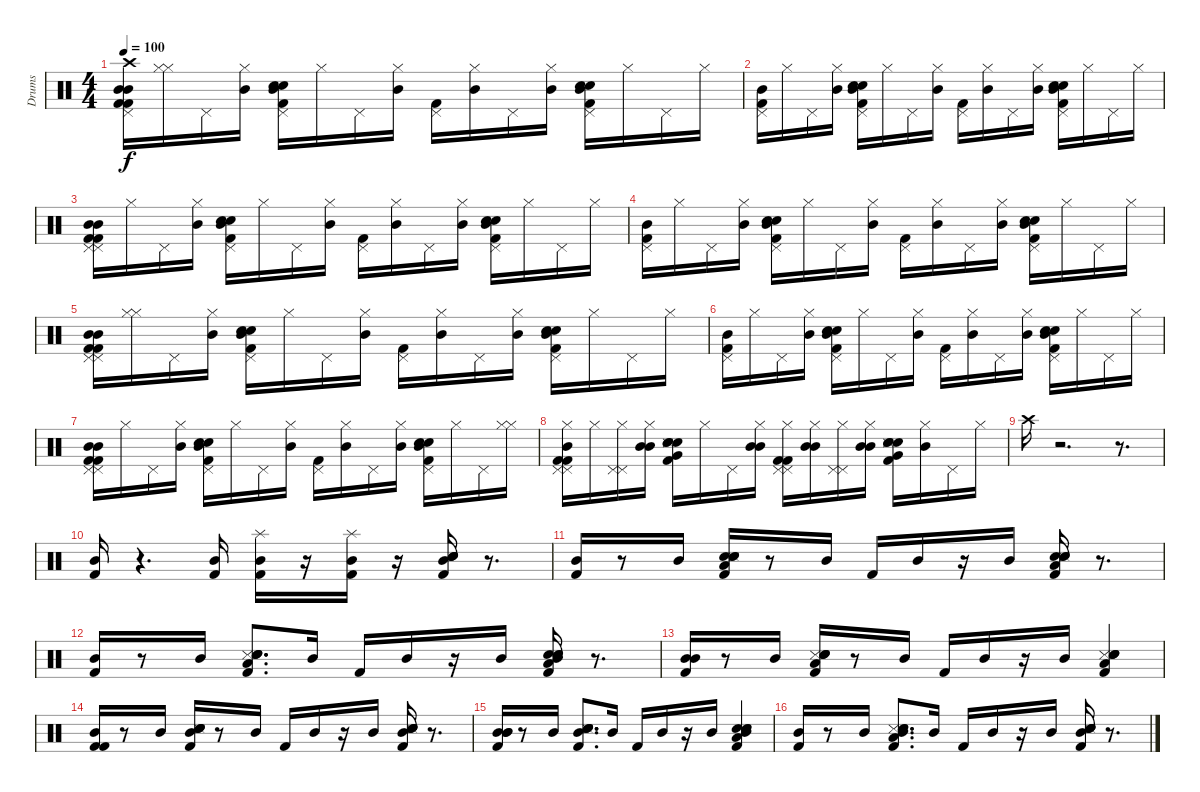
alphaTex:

\track ("Drums" "Drums") {instrument percussion}
\staff {score}
\articulation defaults
\ts (4 4)
\tempo 100
\clef neutral
\ks c
("Kick (hit) 2" "Mid Tom (hit)" "Pedal Hi-Hat (hit)" "Kick (hit) 2" "Mid Tom (hit)" "Crash high (hit)").16{dy f} ("Hi-Hat (closed)" "Hi-Hat (closed)").16 "Pedal Hi-Hat (hit)".16 ("Hi-Hat (closed)" "Mid Tom (hit)").16 ("Pedal Hi-Hat (hit)" "Electric Snare (hit)" "Snare (hit) 2" "Kick (hit) 2" "Mid Tom (hit)").16 "Hi-Hat (closed)".16 "Pedal Hi-Hat (hit)".16 ("Hi-Hat (closed)" "Mid Tom (hit)").16 ("Pedal Hi-Hat (hit)" "Kick (hit) 2").16 ("Hi-Hat (closed)" "Mid Tom (hit)").16 "Pedal Hi-Hat (hit)".16 ("Hi-Hat (closed)" "Mid Tom (hit)").16 ("Pedal Hi-Hat (hit)" "Snare (hit) 2" "Electric Snare (hit)" "Kick (hit) 2" "Mid Tom (hit)").16 "Hi-Hat (closed)".16 "Pedal Hi-Hat (hit)".16 "Hi-Hat (closed)".16 |
("Pedal Hi-Hat (hit)" "Kick (hit) 2" "Mid Tom (hit)").16 "Hi-Hat (closed)".16 "Pedal Hi-Hat (hit)".16 ("Hi-Hat (closed)" "Mid Tom (hit)").16 ("Pedal Hi-Hat (hit)" "Snare (hit) 2" "Electric Snare (hit)" "Kick (hit) 2" "Mid Tom (hit)").16 "Hi-Hat (closed)".16 "Pedal Hi-Hat (hit)".16 ("Hi-Hat (closed)" "Mid Tom (hit)").16 ("Pedal Hi-Hat (hit)" "Kick (hit) 2").16 ("Hi-Hat (closed)" "Mid Tom (hit)").16 "Pedal Hi-Hat (hit)".16 ("Hi-Hat (closed)" "Mid Tom (hit)").16 ("Pedal Hi-Hat (hit)" "Snare (hit) 2" "Electric Snare (hit)" "Kick (hit) 2" "Mid Tom (hit)").16 "Hi-Hat (closed)".16 "Pedal Hi-Hat (hit)".16 "Hi-Hat (closed)".16 |
("Pedal Hi-Hat (hit)" "Kick (hit) 2" "Mid Tom (hit)" "Pedal Hi-Hat (hit)" "Kick (hit) 2" "Mid Tom (hit)").16 "Hi-Hat (closed)".16 "Pedal Hi-Hat (hit)".16 ("Hi-Hat (closed)" "Mid Tom (hit)").16 ("Pedal Hi-Hat (hit)" "Electric Snare (hit)" "Snare (hit) 2" "Kick (hit) 2" "Mid Tom (hit)").16 "Hi-Hat (closed)".16 "Pedal Hi-Hat (hit)".16 ("Hi-Hat (closed)" "Mid Tom (hit)").16 ("Pedal Hi-Hat (hit)" "Kick (hit) 2").16 ("Hi-Hat (closed)" "Mid Tom (hit)").16 "Pedal Hi-Hat (hit)".16 ("Hi-Hat (closed)" "Mid Tom (hit)").16 ("Pedal Hi-Hat (hit)" "Snare (hit) 2" "Electric Snare (hit)" "Kick (hit) 2" "Mid Tom (hit)").16 "Hi-Hat (closed)".16 "Pedal Hi-Hat (hit)".16 "Hi-Hat (closed)".16 |
("Pedal Hi-Hat (hit)" "Kick (hit) 2" "Mid Tom (hit)").16 "Hi-Hat (closed)".16 "Pedal Hi-Hat (hit)".16 ("Hi-Hat (closed)" "Mid Tom (hit)").16 ("Pedal Hi-Hat (hit)" "Snare (hit) 2" "Electric Snare (hit)" "Kick (hit) 2" "Mid Tom (hit)").16 "Hi-Hat (closed)".16 "Pedal Hi-Hat (hit)".16 ("Hi-Hat (closed)" "Mid Tom (hit)").16 ("Pedal Hi-Hat (hit)" "Kick (hit) 2").16 ("Hi-Hat (closed)" "Mid Tom (hit)").16 "Pedal Hi-Hat (hit)".16 ("Hi-Hat (closed)" "Mid Tom (hit)").16 ("Pedal Hi-Hat (hit)" "Snare (hit) 2" "Electric Snare (hit)" "Kick (hit) 2" "Mid Tom (hit)").16 "Hi-Hat (closed)".16 "Pedal Hi-Hat (hit)".16 "Hi-Hat (closed)".16 |
("Pedal Hi-Hat (hit)" "Kick (hit) 2" "Mid Tom (hit)" "Pedal Hi-Hat (hit)" "Kick (hit) 2" "Mid Tom (hit)").16 ("Hi-Hat (closed)" "Hi-Hat (closed)").16 "Pedal Hi-Hat (hit)".16 ("Hi-Hat (closed)" "Mid Tom (hit)").16 ("Pedal Hi-Hat (hit)" "Electric Snare (hit)" "Snare (hit) 2" "Kick (hit) 2" "Mid Tom (hit)").16 "Hi-Hat (closed)".16 "Pedal Hi-Hat (hit)".16 ("Hi-Hat (closed)" "Mid Tom (hit)").16 ("Pedal Hi-Hat (hit)" "Kick (hit) 2").16 ("Hi-Hat (closed)" "Mid Tom (hit)").16 "Pedal Hi-Hat (hit)".16 ("Hi-Hat (closed)" "Mid Tom (hit)").16 ("Pedal Hi-Hat (hit)" "Snare (hit) 2" "Electric Snare (hit)" "Kick (hit) 2" "Mid Tom (hit)").16 "Hi-Hat (closed)".16 "Pedal Hi-Hat (hit)".16 "Hi-Hat (closed)".16 |
("Pedal Hi-Hat (hit)" "Kick (hit) 2" "Mid Tom (hit)").16 "Hi-Hat (closed)".16 "Pedal Hi-Hat (hit)".16 ("Hi-Hat (closed)" "Mid Tom (hit)").16 ("Pedal Hi-Hat (hit)" "Snare (hit) 2" "Electric Snare (hit)" "Kick (hit) 2" "Mid Tom (hit)").16 "Hi-Hat (closed)".16 "Pedal Hi-Hat (hit)".16 ("Hi-Hat (closed)" "Mid Tom (hit)").16 ("Pedal Hi-Hat (hit)" "Kick (hit) 2").16 ("Hi-Hat (closed)" "Mid Tom (hit)").16 "Pedal Hi-Hat (hit)".16 ("Hi-Hat (closed)" "Mid Tom (hit)").16 ("Pedal Hi-Hat (hit)" "Snare (hit) 2" "Electric Snare (hit)" "Kick (hit) 2" "Mid Tom (hit)").16 "Hi-Hat (closed)".16 "Pedal Hi-Hat (hit)".16 "Hi-Hat (closed)".16 |
("Pedal Hi-Hat (hit)" "Kick (hit) 2" "Mid Tom (hit)" "Pedal Hi-Hat (hit)" "Kick (hit) 2" "Mid Tom (hit)").16 "Hi-Hat (closed)".16 "Pedal Hi-Hat (hit)".16 ("Hi-Hat (closed)" "Mid Tom (hit)").16 ("Pedal Hi-Hat (hit)" "Electric Snare (hit)" "Snare (hit) 2" "Kick (hit) 2" "Mid Tom (hit)").16 "Hi-Hat (closed)".16 "Pedal Hi-Hat (hit)".16 ("Hi-Hat (closed)" "Mid Tom (hit)").16 ("Pedal Hi-Hat (hit)" "Kick (hit) 2").16 ("Hi-Hat (closed)" "Mid Tom (hit)").16 "Pedal Hi-Hat (hit)".16 ("Hi-Hat (closed)" "Mid Tom (hit)").16 ("Pedal Hi-Hat (hit)" "Snare (hit) 2" "Electric Snare (hit)" "Kick (hit) 2" "Mid Tom (hit)").16 "Hi-Hat (closed)".16 "Pedal Hi-Hat (hit)".16 ("Hi-Hat (closed)" "Hi-Hat (closed)").16 |
("Pedal Hi-Hat (hit)" "Hi-Hat (closed)" "Kick (hit) 2" "Mid Tom (hit)" "Pedal Hi-Hat (hit)" "Kick (hit) 2").16 "Hi-Hat (closed)".16 ("Hi-Hat (closed)" "Pedal Hi-Hat (hit)" "Pedal Hi-Hat (hit)").16 ("Mid Tom (hit)" "Hi-Hat (closed)" "Mid Tom (hit)").16 ("Snare (hit) 2" "Kick (hit) 2" "Electric Snare (hit)" "Hand Clap (hit)" "Snare (side stick) 3" "Very Low Tom (hit)").16 "Hi-Hat (closed)".16 "Pedal Hi-Hat (hit)".16 ("Mid Tom (hit)" "Hi-Hat (closed)" "Mid Tom (hit)").16 ("Hi-Hat (closed)" "Pedal Hi-Hat (hit)" "Kick (hit) 2" "Pedal Hi-Hat (hit)" "Kick (hit) 2").16 ("Mid Tom (hit)" "Hi-Hat (closed)" "Mid Tom (hit)").16 ("Hi-Hat (closed)" "Pedal Hi-Hat (hit)" "Pedal Hi-Hat (hit)").16 ("Mid Tom (hit)" "Hi-Hat (closed)" "Mid Tom (hit)").16 ("Kick (hit) 2" "Snare (hit) 2" "Electric Snare (hit)" "Hand Clap (hit)" "Snare (side stick) 3" "Very Low Tom (hit)").16 ("Mid Tom (hit)" "Hi-Hat (closed)").16 "Pedal Hi-Hat (hit)".16 "Hi-Hat (closed)".16 |
"Crash high (hit)".16 r.2{d} r.8{d} |
("Kick (hit) 2" "Mid Tom (hit)").16 r.4{d} ("Kick (hit) 2" "Mid Tom (hit)").16 ("Kick (hit) 2" "Mid Tom (hit)" "Splash (hit)").16 r.16 ("Kick (hit) 2" "Mid Tom (hit)" "Splash (hit)").16 r.16 ("Kick (hit) 2" "Mid Tom (hit)" "Snare (hit) 2" "Hand Clap (hit)" "Electric Snare (hit)").16 r.8{d} |
("Kick (hit) 2" "Mid Tom (hit)").16 r.8 "Mid Tom (hit)".16 ("Kick (hit) 2" "Snare (hit) 2" "Hand Clap (hit)" "Electric Snare (hit)" "Snare (side stick) 3" "Low Floor Tom (hit)").16 r.8 "Mid Tom (hit)".16 "Kick (hit) 2".16 "Mid Tom (hit)".16 r.16 "Mid Tom (hit)".16 ("Kick (hit) 2" "Snare (hit) 2" "Hand Clap (hit)" "Electric Snare (hit)" "Snare (side stick) 3" "Low Floor Tom (hit)").16 r.8{d} |
("Kick (hit) 2" "Mid Tom (hit)").16 r.8 "Mid Tom (hit)".16 ("Kick (hit) 2" "Snare (side stick) 3" "Snare (hit) 2" "Hand Clap (hit)" "Electric Snare (hit)" "Low Floor Tom (hit)").8{d} "Mid Tom (hit)".16 "Kick (hit) 2".16 "Mid Tom (hit)".16 r.16 "Mid Tom (hit)".16 ("Mid Tom (hit)" "Kick (hit) 2" "Low Floor Tom (hit)" "Electric Snare (hit)" "Hand Clap (hit)" "Snare (hit) 2").16 r.8{d} |
("Kick (hit) 2" "Mid Tom (hit)" "Mid Tom (hit)").16 r.8 "Mid Tom (hit)".16 ("Kick (hit) 2" "Snare (side stick) 3" "Snare (hit) 2" "Hand Clap (hit)" "Low Floor Tom (hit)" "Electric Snare (hit)").16 r.8 "Mid Tom (hit)".16 "Kick (hit) 2".16 "Mid Tom (hit)".16 r.16 "Mid Tom (hit)".16 ("Kick (hit) 2" "Snare (side stick) 3" "Snare (hit) 2" "Hand Clap (hit)" "Electric Snare (hit)" "Low Floor Tom (hit)").4 |
("Mid Tom (hit)" "Kick (hit) 2" "Kick (hit) 2").16 r.8 "Mid Tom (hit)".16 ("Mid Tom (hit)" "Kick (hit) 2" "Snare (hit) 2" "Hand Clap (hit)" "Electric Snare (hit)" "Snare (side stick) 3").16 r.8 "Mid Tom (hit)".16 "Kick (hit) 2".16 "Mid Tom (hit)".16 r.16 "Mid Tom (hit)".16 ("Mid Tom (hit)" "Kick (hit) 2" "Snare (hit) 2" "Hand Clap (hit)" "Electric Snare (hit)" "Snare (side stick) 3").16 r.8{d} |
("Mid Tom (hit)" "Mid Tom (hit)" "Mid Tom (hit)" "Kick (hit) 2").16 r.8 "Mid Tom (hit)".16 ("Mid Tom (hit)" "Kick (hit) 2" "Snare (side stick) 3" "Snare (hit) 2" "Hand Clap (hit)" "Electric Snare (hit)").8{d} "Mid Tom (hit)".16 "Kick (hit) 2".16 "Mid Tom (hit)".16 r.16 "Mid Tom (hit)".16 ("Mid Tom (hit)" "Kick (hit) 2" "Low Floor Tom (hit)" "Electric Snare (hit)" "Hand Clap (hit)" "Snare (hit) 2").4 |
("Mid Tom (hit)" "Kick (hit) 2").16 r.8 "Mid Tom (hit)".16 ("Mid Tom (hit)" "Kick (hit) 2" "Snare (side stick) 3" "Snare (hit) 2" "Hand Clap (hit)" "Low Floor Tom (hit)").8{d} "Mid Tom (hit)".16 "Kick (hit) 2".16 "Mid Tom (hit)".16 r.16 "Mid Tom (hit)".16 ("Mid Tom (hit)" "Kick (hit) 2" "Snare (side stick) 3" "Snare (hit) 2" "Hand Clap (hit)" "Electric Snare (hit)").16 r.8{d}
